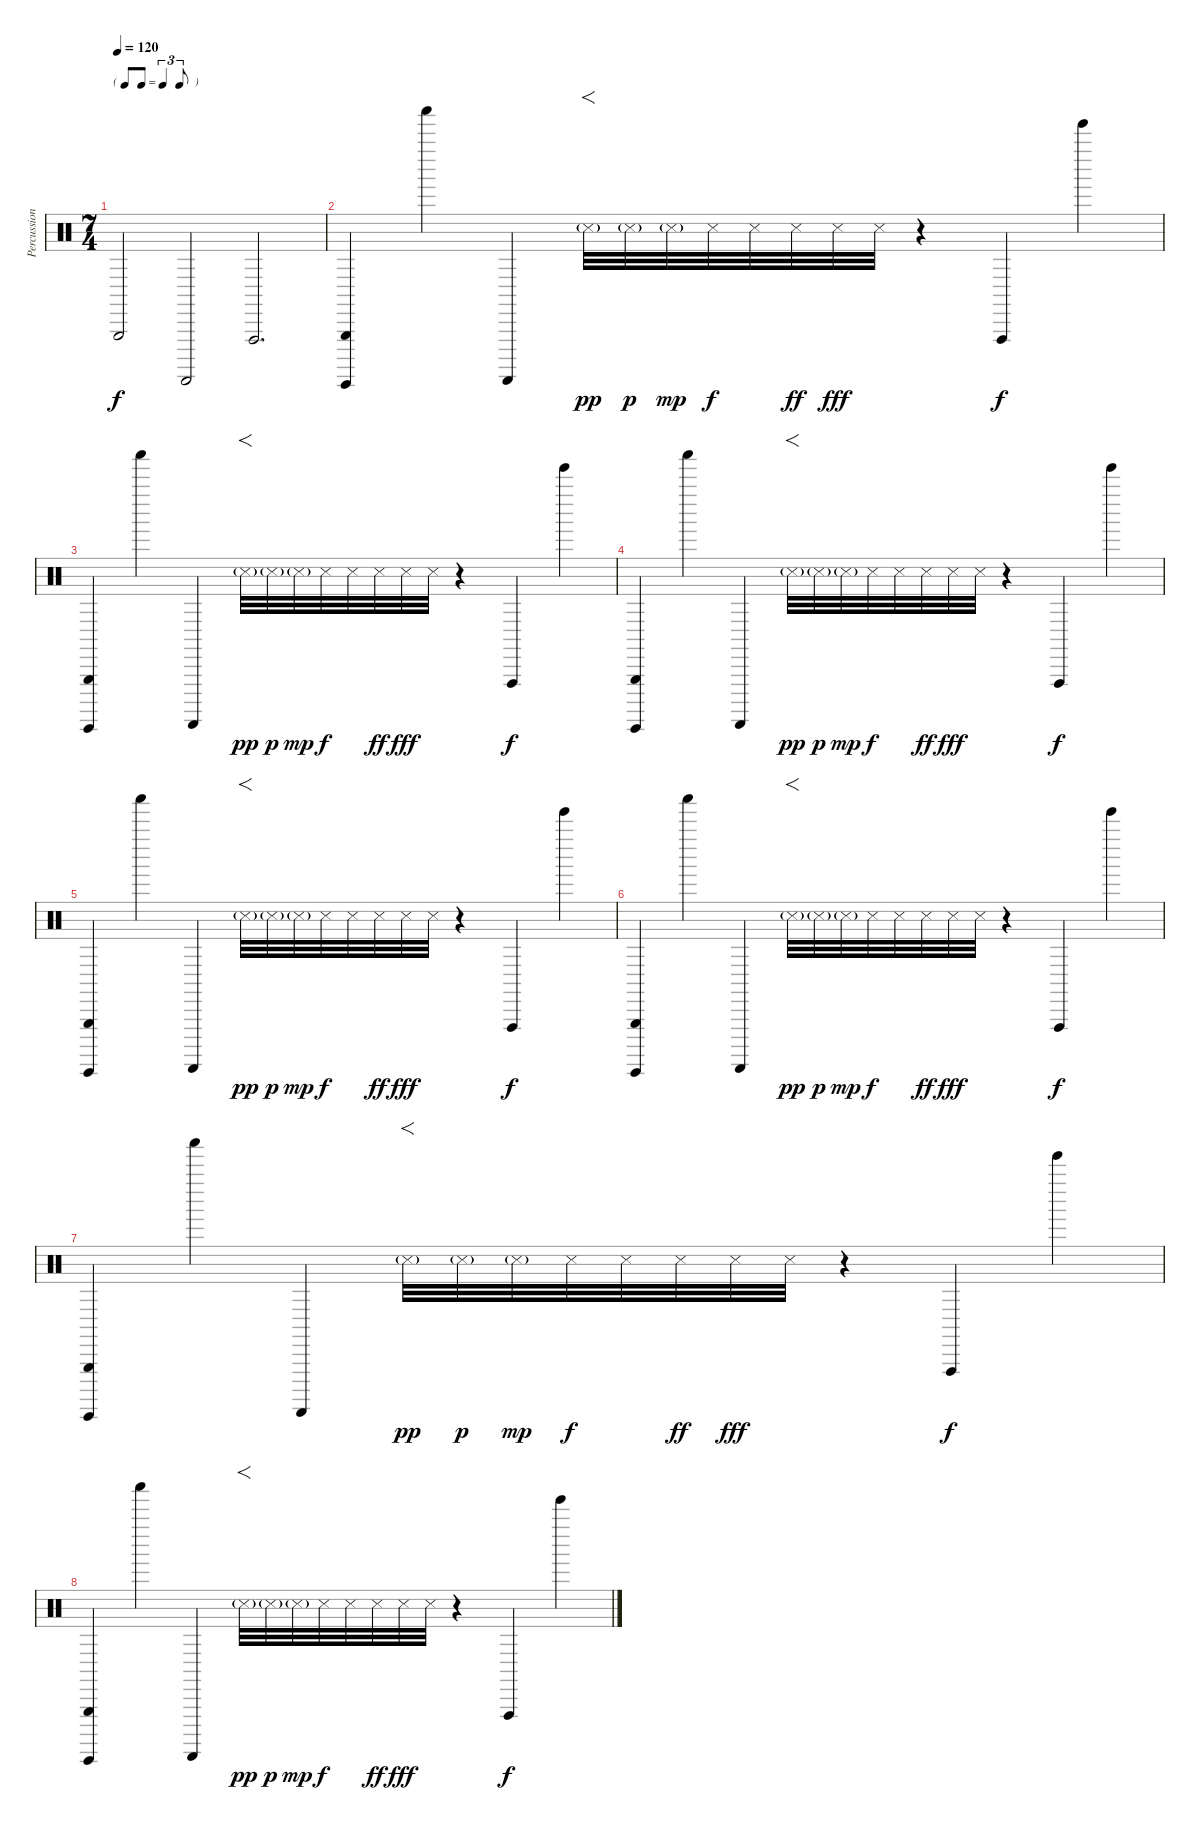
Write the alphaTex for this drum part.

\track ("Percussion" "Percussion") {instrument percussion}
\staff {score}
\articulation defaults
\ts (7 4)
\tf triplet8th
\tempo 120
\clef neutral
\ks c "Triangle (hit)".2{dy f} "Guiro (scrap-return)".2 "Vibraslap (hit)".2{d}
|
("Triangle (hit)" "Guiro (hit)").4 "Shaker (hit)".4 "Guiro (scrap-return)".4 "Snare (side stick) 3"{g}.32{f dy pp} "Snare (side stick) 3"{g}.32{dy p} "Snare (side stick) 3"{g}.32{dy mp} "Snare (side stick) 3".32{dy f} "Snare (side stick) 3".32 "Snare (side stick) 3".32{dy ff} "Snare (side stick) 3".32{dy fff} "Snare (side stick) 3".32 r.4 "Vibraslap (hit)".4{dy f} "Tinkle Bell (hit)".4 |
("Triangle (hit)" "Guiro (hit)").4 "Shaker (hit)".4 "Guiro (scrap-return)".4 "Snare (side stick) 3"{g}.32{f dy pp} "Snare (side stick) 3"{g}.32{dy p} "Snare (side stick) 3"{g}.32{dy mp} "Snare (side stick) 3".32{dy f} "Snare (side stick) 3".32 "Snare (side stick) 3".32{dy ff} "Snare (side stick) 3".32{dy fff} "Snare (side stick) 3".32 r.4 "Vibraslap (hit)".4{dy f} "Tinkle Bell (hit)".4 |
("Triangle (hit)" "Guiro (hit)").4 "Shaker (hit)".4 "Guiro (scrap-return)".4 "Snare (side stick) 3"{g}.32{f dy pp} "Snare (side stick) 3"{g}.32{dy p} "Snare (side stick) 3"{g}.32{dy mp} "Snare (side stick) 3".32{dy f} "Snare (side stick) 3".32 "Snare (side stick) 3".32{dy ff} "Snare (side stick) 3".32{dy fff} "Snare (side stick) 3".32 r.4 "Vibraslap (hit)".4{dy f} "Tinkle Bell (hit)".4 |
("Triangle (hit)" "Guiro (hit)").4 "Shaker (hit)".4 "Guiro (scrap-return)".4 "Snare (side stick) 3"{g}.32{f dy pp} "Snare (side stick) 3"{g}.32{dy p} "Snare (side stick) 3"{g}.32{dy mp} "Snare (side stick) 3".32{dy f} "Snare (side stick) 3".32 "Snare (side stick) 3".32{dy ff} "Snare (side stick) 3".32{dy fff} "Snare (side stick) 3".32 r.4 "Vibraslap (hit)".4{dy f} "Tinkle Bell (hit)".4 |
("Triangle (hit)" "Guiro (hit)").4 "Shaker (hit)".4 "Guiro (scrap-return)".4 "Snare (side stick) 3"{g}.32{f dy pp} "Snare (side stick) 3"{g}.32{dy p} "Snare (side stick) 3"{g}.32{dy mp} "Snare (side stick) 3".32{dy f} "Snare (side stick) 3".32 "Snare (side stick) 3".32{dy ff} "Snare (side stick) 3".32{dy fff} "Snare (side stick) 3".32 r.4 "Vibraslap (hit)".4{dy f} "Tinkle Bell (hit)".4 |
("Triangle (hit)" "Guiro (hit)").4 "Shaker (hit)".4 "Guiro (scrap-return)".4 "Snare (side stick) 3"{g}.32{f dy pp} "Snare (side stick) 3"{g}.32{dy p} "Snare (side stick) 3"{g}.32{dy mp} "Snare (side stick) 3".32{dy f} "Snare (side stick) 3".32 "Snare (side stick) 3".32{dy ff} "Snare (side stick) 3".32{dy fff} "Snare (side stick) 3".32 r.4 "Vibraslap (hit)".4{dy f} "Tinkle Bell (hit)".4 |
("Triangle (hit)" "Guiro (hit)").4 "Shaker (hit)".4 "Guiro (scrap-return)".4 "Snare (side stick) 3"{g}.32{f dy pp} "Snare (side stick) 3"{g}.32{dy p} "Snare (side stick) 3"{g}.32{dy mp} "Snare (side stick) 3".32{dy f} "Snare (side stick) 3".32 "Snare (side stick) 3".32{dy ff} "Snare (side stick) 3".32{dy fff} "Snare (side stick) 3".32 r.4 "Vibraslap (hit)".4{dy f} "Tinkle Bell (hit)".4
